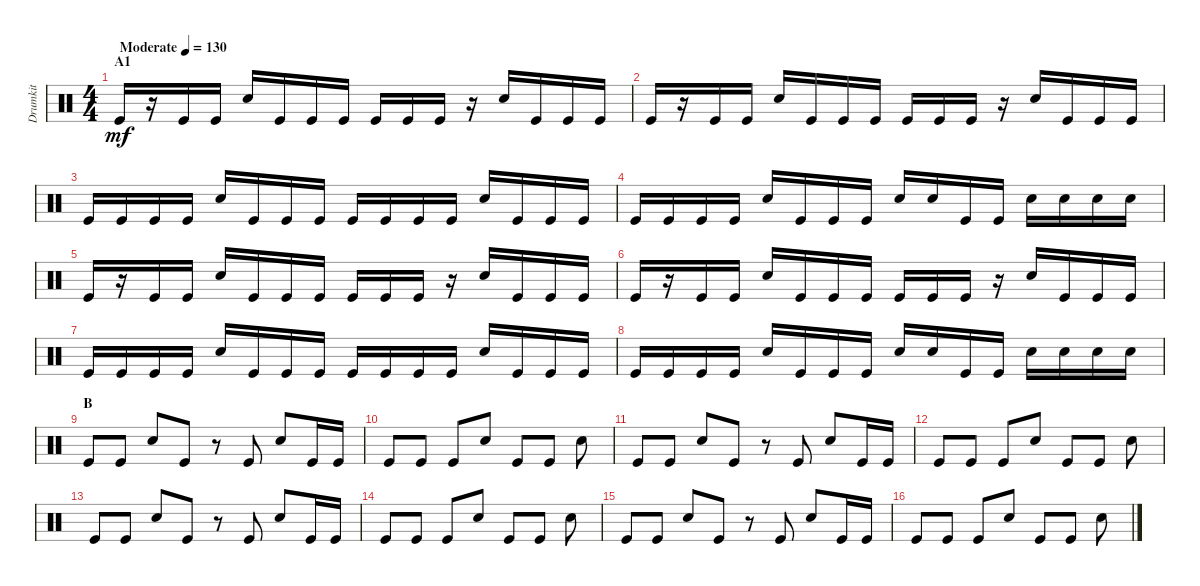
\track ("Drumkit" "Drumkit") {instrument percussion}
\staff {score}
\articulation defaults
\ts (4 4)
\section ("" "A1")
\tempo (130 "Moderate")
\clef neutral
\ks c "Kick (hit)".16{dy mf}
r.16 "Kick (hit)".16 "Kick (hit)".16 "Snare (hit) 2".16 "Kick (hit)".16 "Kick (hit)".16 "Kick (hit)".16 "Kick (hit)".16 "Kick (hit)".16 "Kick (hit)".16 r.16 "Snare (hit) 2".16 "Kick (hit)".16 "Kick (hit)".16 "Kick (hit)".16 |
"Kick (hit)".16 r.16 "Kick (hit)".16 "Kick (hit)".16 "Snare (hit) 2".16 "Kick (hit)".16 "Kick (hit)".16 "Kick (hit)".16 "Kick (hit)".16 "Kick (hit)".16 "Kick (hit)".16 r.16 "Snare (hit) 2".16 "Kick (hit)".16 "Kick (hit)".16 "Kick (hit)".16 |
"Kick (hit)".16 "Kick (hit)".16 "Kick (hit)".16 "Kick (hit)".16 "Snare (hit) 2".16 "Kick (hit)".16 "Kick (hit)".16 "Kick (hit)".16 "Kick (hit)".16 "Kick (hit)".16 "Kick (hit)".16 "Kick (hit)".16 "Snare (hit) 2".16 "Kick (hit)".16 "Kick (hit)".16 "Kick (hit)".16 |
"Kick (hit)".16 "Kick (hit)".16 "Kick (hit)".16 "Kick (hit)".16 "Snare (hit) 2".16 "Kick (hit)".16 "Kick (hit)".16 "Kick (hit)".16 "Snare (hit) 2".16 "Snare (hit) 2".16 "Kick (hit)".16 "Kick (hit)".16 "Snare (hit) 2".16 "Snare (hit) 2".16 "Snare (hit) 2".16 "Snare (hit) 2".16 |
"Kick (hit)".16 r.16 "Kick (hit)".16 "Kick (hit)".16 "Snare (hit) 2".16 "Kick (hit)".16 "Kick (hit)".16 "Kick (hit)".16 "Kick (hit)".16 "Kick (hit)".16 "Kick (hit)".16 r.16 "Snare (hit) 2".16 "Kick (hit)".16 "Kick (hit)".16 "Kick (hit)".16 |
"Kick (hit)".16 r.16 "Kick (hit)".16 "Kick (hit)".16 "Snare (hit) 2".16 "Kick (hit)".16 "Kick (hit)".16 "Kick (hit)".16 "Kick (hit)".16 "Kick (hit)".16 "Kick (hit)".16 r.16 "Snare (hit) 2".16 "Kick (hit)".16 "Kick (hit)".16 "Kick (hit)".16 |
"Kick (hit)".16 "Kick (hit)".16 "Kick (hit)".16 "Kick (hit)".16 "Snare (hit) 2".16 "Kick (hit)".16 "Kick (hit)".16 "Kick (hit)".16 "Kick (hit)".16 "Kick (hit)".16 "Kick (hit)".16 "Kick (hit)".16 "Snare (hit) 2".16 "Kick (hit)".16 "Kick (hit)".16 "Kick (hit)".16 |
"Kick (hit)".16 "Kick (hit)".16 "Kick (hit)".16 "Kick (hit)".16 "Snare (hit) 2".16 "Kick (hit)".16 "Kick (hit)".16 "Kick (hit)".16 "Snare (hit) 2".16 "Snare (hit) 2".16 "Kick (hit)".16 "Kick (hit)".16 "Snare (hit) 2".16 "Snare (hit) 2".16 "Snare (hit) 2".16 "Snare (hit) 2".16 |
\section ("" "B")
"Kick (hit)".8 "Kick (hit)".8 "Snare (hit) 2".8 "Kick (hit)".8 r.8 "Kick (hit)".8 "Snare (hit) 2".8 "Kick (hit)".16 "Kick (hit)".16 |
"Kick (hit)".8 "Kick (hit)".8 "Kick (hit)".8 "Snare (hit) 2".8 "Kick (hit)".8 "Kick (hit)".8 "Snare (hit) 2".8 |
"Kick (hit)".8 "Kick (hit)".8 "Snare (hit) 2".8 "Kick (hit)".8 r.8 "Kick (hit)".8 "Snare (hit) 2".8 "Kick (hit)".16 "Kick (hit)".16 |
"Kick (hit)".8 "Kick (hit)".8 "Kick (hit)".8 "Snare (hit) 2".8 "Kick (hit)".8 "Kick (hit)".8 "Snare (hit) 2".8 |
"Kick (hit)".8 "Kick (hit)".8 "Snare (hit) 2".8 "Kick (hit)".8 r.8 "Kick (hit)".8 "Snare (hit) 2".8 "Kick (hit)".16 "Kick (hit)".16 |
"Kick (hit)".8 "Kick (hit)".8 "Kick (hit)".8 "Snare (hit) 2".8 "Kick (hit)".8 "Kick (hit)".8 "Snare (hit) 2".8 |
"Kick (hit)".8 "Kick (hit)".8 "Snare (hit) 2".8 "Kick (hit)".8 r.8 "Kick (hit)".8 "Snare (hit) 2".8 "Kick (hit)".16 "Kick (hit)".16 |
"Kick (hit)".8 "Kick (hit)".8 "Kick (hit)".8 "Snare (hit) 2".8 "Kick (hit)".8 "Kick (hit)".8 "Snare (hit) 2".8
